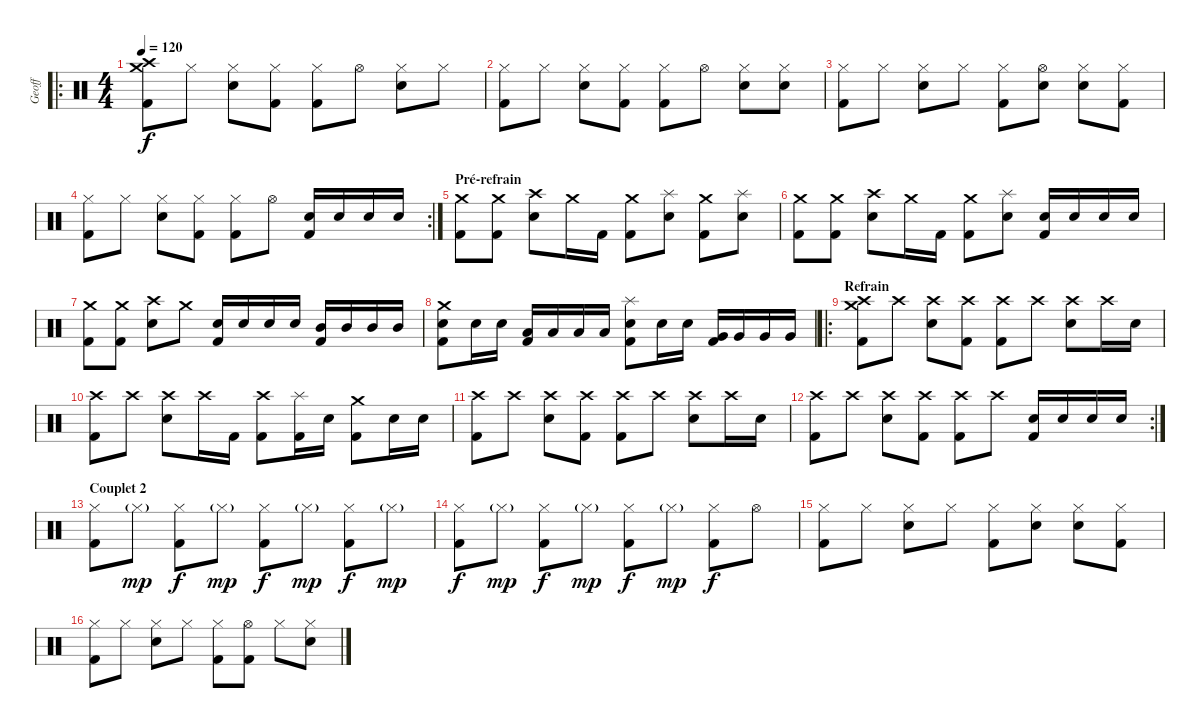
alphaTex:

\track ("Geoff" "Geoff") {instrument percussion}
\staff {score}
\articulation defaults
\ro
\ts (4 4)
\tempo 120
\clef neutral
\ks c
("Crash high (hit)" "Crash medium (hit)" "Kick (hit) 2").8{dy f} "Hi-Hat (closed)".8 ("Hi-Hat (closed)" "Electric Snare (hit)").8 ("Hi-Hat (closed)" "Kick (hit) 2").8 ("Hi-Hat (closed)" "Kick (hit) 2").8 "Hi-Hat (open)".8 ("Hi-Hat (closed)" "Electric Snare (hit)").8 "Hi-Hat (closed)".8 |
("Hi-Hat (closed)" "Kick (hit) 2").8 "Hi-Hat (closed)".8 ("Hi-Hat (closed)" "Electric Snare (hit)").8 ("Hi-Hat (closed)" "Kick (hit) 2").8 ("Hi-Hat (closed)" "Kick (hit) 2").8 "Hi-Hat (open)".8 ("Hi-Hat (closed)" "Electric Snare (hit)").8 ("Hi-Hat (closed)" "Electric Snare (hit)").8 |
("Hi-Hat (closed)" "Kick (hit) 2").8 "Hi-Hat (closed)".8 ("Hi-Hat (closed)" "Electric Snare (hit)").8 "Hi-Hat (closed)".8 ("Hi-Hat (closed)" "Kick (hit) 2").8 ("Hi-Hat (open)" "Electric Snare (hit)").8 ("Hi-Hat (closed)" "Electric Snare (hit)").8 ("Hi-Hat (closed)" "Kick (hit) 2").8 |
\rc 2
("Hi-Hat (closed)" "Kick (hit) 2").8 "Hi-Hat (closed)".8 ("Hi-Hat (closed)" "Electric Snare (hit)").8 ("Hi-Hat (closed)" "Kick (hit) 2").8 ("Hi-Hat (closed)" "Kick (hit) 2").8 "Hi-Hat (open)".8 ("Electric Snare (hit)" "Kick (hit) 2").16 "Electric Snare (hit)".16 "Electric Snare (hit)".16 "Electric Snare (hit)".16 |
\section ("" "Pré-refrain")
("Crash medium (hit)" "Kick (hit) 2").8 ("Crash medium (hit)" "Kick (hit) 2").8 ("Crash high (hit)" "Electric Snare (hit)").8 "Crash medium (hit)".16 "Kick (hit) 2".16 ("Crash medium (hit)" "Kick (hit) 2").8 ("Splash (hit)" "Electric Snare (hit)").8 ("Crash medium (hit)" "Kick (hit) 2").8 ("Splash (hit)" "Electric Snare (hit)").8 |
("Crash medium (hit)" "Kick (hit) 2").8 ("Crash medium (hit)" "Kick (hit) 2").8 ("Crash high (hit)" "Electric Snare (hit)").8 "Crash medium (hit)".16 "Kick (hit) 2".16 ("Crash medium (hit)" "Kick (hit) 2").8 ("Splash (hit)" "Electric Snare (hit)").8 ("Electric Snare (hit)" "Kick (hit) 2").16 "Electric Snare (hit)".16 "Electric Snare (hit)".16 "Electric Snare (hit)".16 |
("Crash medium (hit)" "Kick (hit) 2").8 ("Crash medium (hit)" "Kick (hit) 2").8 ("Crash high (hit)" "Electric Snare (hit)").8 "Crash medium (hit)".8 ("Electric Snare (hit)" "Kick (hit) 2").16 "Electric Snare (hit)".16 "Electric Snare (hit)".16 "Electric Snare (hit)".16 ("Mid Tom (hit)" "Kick (hit) 2").16 "Mid Tom (hit)".16 "Mid Tom (hit)".16 "Mid Tom (hit)".16 |
("Crash medium (hit)" "Electric Snare (hit)" "Kick (hit) 2").8 "Electric Snare (hit)".16 "Electric Snare (hit)".16 ("Low Tom (hit)" "Kick (hit) 2").16 "Low Tom (hit)".16 "Low Tom (hit)".16 "Low Tom (hit)".16 ("Splash (hit)" "Electric Snare (hit)" "Kick (hit) 2").8 "Electric Snare (hit)".16 "Electric Snare (hit)".16 ("Very Low Tom (hit)" "Kick (hit) 2").16 "Very Low Tom (hit)".16 "Very Low Tom (hit)".16 "Very Low Tom (hit)".16 |
\ro
\section ("" "Refrain")
("Crash high (hit)" "Crash medium (hit)" "Kick (hit) 2").8 "Crash high (hit)".8 ("Crash high (hit)" "Electric Snare (hit)").8 ("Crash high (hit)" "Kick (hit) 2").8 ("Crash high (hit)" "Kick (hit) 2").8 "Crash high (hit)".8 ("Crash high (hit)" "Electric Snare (hit)").8 "Crash high (hit)".16 "Electric Snare (hit)".16 |
("Crash high (hit)" "Kick (hit) 2").8 "Crash high (hit)".8 ("Crash high (hit)" "Electric Snare (hit)").8 "Crash high (hit)".16 "Kick (hit) 2".16 ("Crash high (hit)" "Kick (hit) 2").8 ("Splash (hit)" "Kick (hit) 2").16 "Electric Snare (hit)".16 ("Crash medium (hit)" "Kick (hit) 2").8 "Electric Snare (hit)".16 "Electric Snare (hit)".16 |
("Crash high (hit)" "Kick (hit) 2").8 "Crash high (hit)".8 ("Crash high (hit)" "Electric Snare (hit)").8 ("Crash high (hit)" "Kick (hit) 2").8 ("Crash high (hit)" "Kick (hit) 2").8 "Crash high (hit)".8 ("Crash high (hit)" "Electric Snare (hit)").8 "Crash high (hit)".16 "Electric Snare (hit)".16 |
\rc 2
("Crash high (hit)" "Kick (hit) 2").8 "Crash high (hit)".8 ("Crash high (hit)" "Electric Snare (hit)").8 ("Crash high (hit)" "Kick (hit) 2").8 ("Crash high (hit)" "Kick (hit) 2").8 "Crash high (hit)".8 ("Electric Snare (hit)" "Kick (hit) 2").16 "Electric Snare (hit)".16 "Electric Snare (hit)".16 "Electric Snare (hit)".16 |
\section ("" "Couplet 2")
("Hi-Hat (closed)" "Kick (hit) 2").8 "Hi-Hat (closed)"{g}.8{dy mp} ("Hi-Hat (closed)" "Kick (hit) 2").8{dy f} "Hi-Hat (closed)"{g}.8{dy mp} ("Hi-Hat (closed)" "Kick (hit) 2").8{dy f} "Hi-Hat (closed)"{g}.8{dy mp} ("Hi-Hat (closed)" "Kick (hit) 2").8{dy f} "Hi-Hat (closed)"{g}.8{dy mp} |
("Hi-Hat (closed)" "Kick (hit) 2").8{dy f} "Hi-Hat (closed)"{g}.8{dy mp} ("Hi-Hat (closed)" "Kick (hit) 2").8{dy f} "Hi-Hat (closed)"{g}.8{dy mp} ("Hi-Hat (closed)" "Kick (hit) 2").8{dy f} "Hi-Hat (closed)"{g}.8{dy mp} ("Hi-Hat (closed)" "Kick (hit) 2").8{dy f} "Hi-Hat (open)".8 |
("Hi-Hat (closed)" "Kick (hit) 2").8 "Hi-Hat (closed)".8 ("Hi-Hat (closed)" "Electric Snare (hit)").8 "Hi-Hat (closed)".8 ("Hi-Hat (closed)" "Kick (hit) 2").8 ("Hi-Hat (closed)" "Electric Snare (hit)").8 ("Hi-Hat (closed)" "Electric Snare (hit)").8 ("Hi-Hat (closed)" "Kick (hit) 2").8 |
("Hi-Hat (closed)" "Kick (hit) 2").8 "Hi-Hat (closed)".8 ("Hi-Hat (closed)" "Electric Snare (hit)").8 "Hi-Hat (closed)".8 ("Hi-Hat (closed)" "Kick (hit) 2").8 ("Hi-Hat (open)" "Kick (hit) 2").8 "Hi-Hat (closed)".8 ("Hi-Hat (closed)" "Electric Snare (hit)").8
